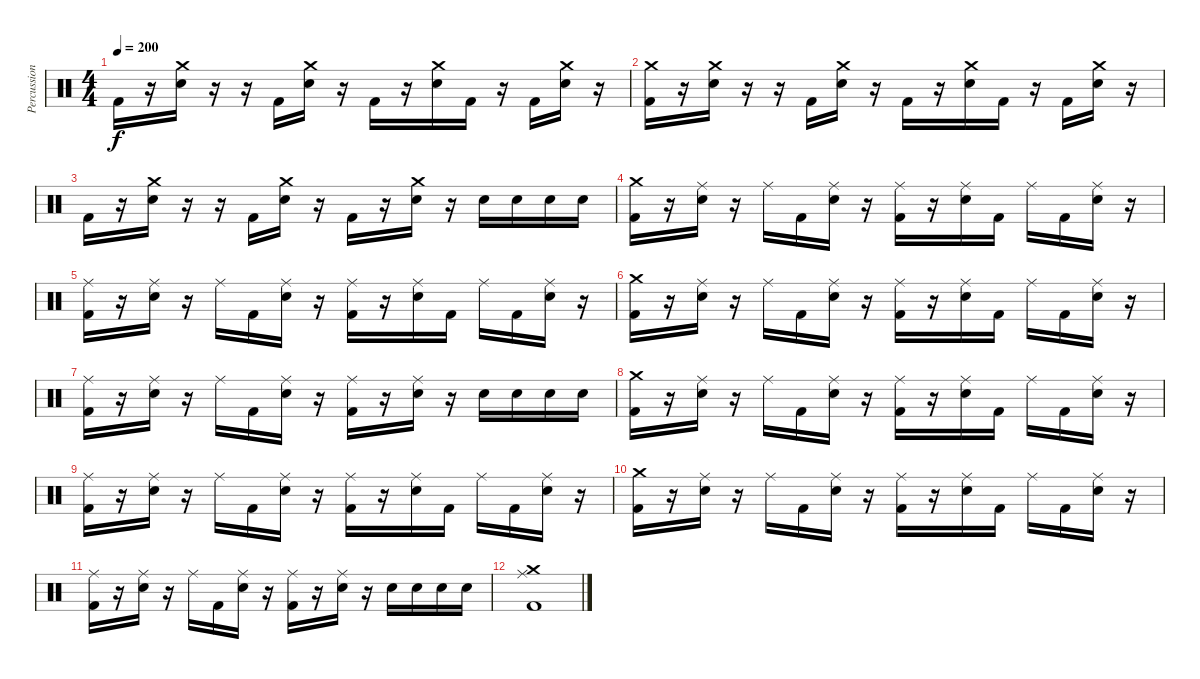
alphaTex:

\track ("Percussion" "Percussion") {instrument percussion}
\staff {score}
\articulation defaults
\ts (4 4)
\tempo 200
\clef neutral
\ks c "Kick (hit) 2".16{dy f}
r.16 ("Crash medium (hit)" "Electric Snare (hit)").16 r.16 r.16 "Kick (hit) 2".16 ("Crash medium (hit)" "Electric Snare (hit)").16 r.16 "Kick (hit) 2".16 r.16 ("Crash medium (hit)" "Electric Snare (hit)").16 "Kick (hit) 2".16 r.16 "Kick (hit) 2".16 ("Crash medium (hit)" "Electric Snare (hit)").16 r.16 |
("Crash medium (hit)" "Kick (hit) 2").16 r.16 ("Crash medium (hit)" "Electric Snare (hit)").16 r.16 r.16 "Kick (hit) 2".16 ("Crash medium (hit)" "Electric Snare (hit)").16 r.16 "Kick (hit) 2".16 r.16 ("Crash medium (hit)" "Electric Snare (hit)").16 "Kick (hit) 2".16 r.16 "Kick (hit) 2".16 ("Crash medium (hit)" "Electric Snare (hit)").16 r.16 |
"Kick (hit) 2".16 r.16 ("Crash medium (hit)" "Electric Snare (hit)").16 r.16 r.16 "Kick (hit) 2".16 ("Crash medium (hit)" "Electric Snare (hit)").16 r.16 "Kick (hit) 2".16 r.16 ("Crash medium (hit)" "Electric Snare (hit)").16 r.16 "Electric Snare (hit)".16 "Electric Snare (hit)".16 "Electric Snare (hit)".16 "Electric Snare (hit)".16 |
("Crash medium (hit)" "Kick (hit) 2").16 r.16 ("Ride (middle)" "Electric Snare (hit)").16 r.16 "Ride (middle)".16 "Kick (hit) 2".16 ("Ride (middle)" "Electric Snare (hit)").16 r.16 ("Ride (middle)" "Kick (hit) 2").16 r.16 ("Ride (middle)" "Electric Snare (hit)").16 "Kick (hit) 2".16 "Ride (middle)".16 "Kick (hit) 2".16 ("Ride (middle)" "Electric Snare (hit)").16 r.16 |
("Ride (middle)" "Kick (hit) 2").16 r.16 ("Ride (middle)" "Electric Snare (hit)").16 r.16 "Ride (middle)".16 "Kick (hit) 2".16 ("Ride (middle)" "Electric Snare (hit)").16 r.16 ("Ride (middle)" "Kick (hit) 2").16 r.16 ("Ride (middle)" "Electric Snare (hit)").16 "Kick (hit) 2".16 "Ride (middle)".16 "Kick (hit) 2".16 ("Ride (middle)" "Electric Snare (hit)").16 r.16 |
("Crash medium (hit)" "Kick (hit) 2").16 r.16 ("Ride (middle)" "Electric Snare (hit)").16 r.16 "Ride (middle)".16 "Kick (hit) 2".16 ("Ride (middle)" "Electric Snare (hit)").16 r.16 ("Ride (middle)" "Kick (hit) 2").16 r.16 ("Ride (middle)" "Electric Snare (hit)").16 "Kick (hit) 2".16 "Ride (middle)".16 "Kick (hit) 2".16 ("Ride (middle)" "Electric Snare (hit)").16 r.16 |
("Ride (middle)" "Kick (hit) 2").16 r.16 ("Ride (middle)" "Electric Snare (hit)").16 r.16 "Ride (middle)".16 "Kick (hit) 2".16 ("Ride (middle)" "Electric Snare (hit)").16 r.16 ("Ride (middle)" "Kick (hit) 2").16 r.16 ("Ride (middle)" "Electric Snare (hit)").16 r.16 "Electric Snare (hit)".16 "Electric Snare (hit)".16 "Electric Snare (hit)".16 "Electric Snare (hit)".16 |
("Crash medium (hit)" "Kick (hit) 2").16 r.16 ("Ride (middle)" "Electric Snare (hit)").16 r.16 "Ride (middle)".16 "Kick (hit) 2".16 ("Ride (middle)" "Electric Snare (hit)").16 r.16 ("Ride (middle)" "Kick (hit) 2").16 r.16 ("Ride (middle)" "Electric Snare (hit)").16 "Kick (hit) 2".16 "Ride (middle)".16 "Kick (hit) 2".16 ("Ride (middle)" "Electric Snare (hit)").16 r.16 |
("Ride (middle)" "Kick (hit) 2").16 r.16 ("Ride (middle)" "Electric Snare (hit)").16 r.16 "Ride (middle)".16 "Kick (hit) 2".16 ("Ride (middle)" "Electric Snare (hit)").16 r.16 ("Ride (middle)" "Kick (hit) 2").16 r.16 ("Ride (middle)" "Electric Snare (hit)").16 "Kick (hit) 2".16 "Ride (middle)".16 "Kick (hit) 2".16 ("Ride (middle)" "Electric Snare (hit)").16 r.16 |
("Crash medium (hit)" "Kick (hit) 2").16 r.16 ("Ride (middle)" "Electric Snare (hit)").16 r.16 "Ride (middle)".16 "Kick (hit) 2".16 ("Ride (middle)" "Electric Snare (hit)").16 r.16 ("Ride (middle)" "Kick (hit) 2").16 r.16 ("Ride (middle)" "Electric Snare (hit)").16 "Kick (hit) 2".16 "Ride (middle)".16 "Kick (hit) 2".16 ("Ride (middle)" "Electric Snare (hit)").16 r.16 |
("Ride (middle)" "Kick (hit) 2").16 r.16 ("Ride (middle)" "Electric Snare (hit)").16 r.16 "Ride (middle)".16 "Kick (hit) 2".16 ("Ride (middle)" "Electric Snare (hit)").16 r.16 ("Ride (middle)" "Kick (hit) 2").16 r.16 ("Ride (middle)" "Electric Snare (hit)").16 r.16 "Electric Snare (hit)".16 "Electric Snare (hit)".16 "Electric Snare (hit)".16 "Electric Snare (hit)".16 |
("Crash medium (hit)" "Ride (middle)" "Kick (hit) 2").1
